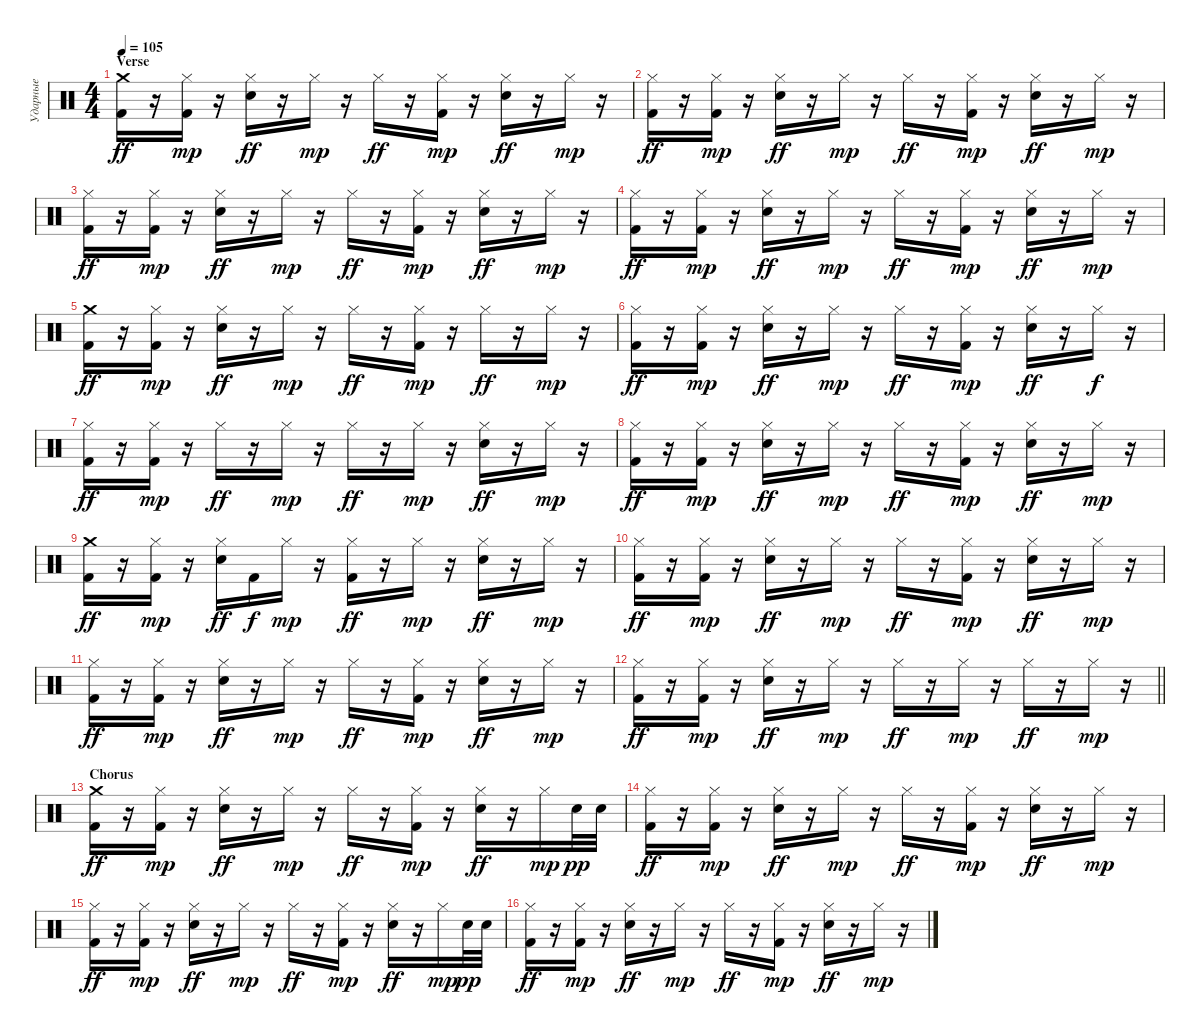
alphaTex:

\track ("Ударные" "Ударные") {instrument percussion}
\staff {score}
\articulation defaults
\ts (4 4)
\section ("" "Verse")
\tempo 105
\clef neutral
\ks c
("Crash medium (hit)" "Kick (hit) 2").16{dy ff} r.16 ("Hi-Hat (closed)" "Kick (hit) 2").16{dy mp} r.16 ("Hi-Hat (closed)" "Electric Snare (hit)").16{dy ff} r.16 "Hi-Hat (closed)".16{dy mp} r.16 "Hi-Hat (closed)".16{dy ff} r.16 ("Hi-Hat (closed)" "Kick (hit) 2").16{dy mp} r.16 ("Hi-Hat (closed)" "Electric Snare (hit)").16{dy ff} r.16 "Hi-Hat (closed)".16{dy mp} r.16 |
("Hi-Hat (closed)" "Kick (hit) 2").16{dy ff} r.16 ("Hi-Hat (closed)" "Kick (hit) 2").16{dy mp} r.16 ("Hi-Hat (closed)" "Electric Snare (hit)").16{dy ff} r.16 "Hi-Hat (closed)".16{dy mp} r.16 "Hi-Hat (closed)".16{dy ff} r.16 ("Hi-Hat (closed)" "Kick (hit) 2").16{dy mp} r.16 ("Hi-Hat (closed)" "Electric Snare (hit)").16{dy ff} r.16 "Hi-Hat (closed)".16{dy mp} r.16 |
("Hi-Hat (closed)" "Kick (hit) 2").16{dy ff} r.16 ("Hi-Hat (closed)" "Kick (hit) 2").16{dy mp} r.16 ("Hi-Hat (closed)" "Electric Snare (hit)").16{dy ff} r.16 "Hi-Hat (closed)".16{dy mp} r.16 "Hi-Hat (closed)".16{dy ff} r.16 ("Hi-Hat (closed)" "Kick (hit) 2").16{dy mp} r.16 ("Hi-Hat (closed)" "Electric Snare (hit)").16{dy ff} r.16 "Hi-Hat (closed)".16{dy mp} r.16 |
("Hi-Hat (closed)" "Kick (hit) 2").16{dy ff} r.16 ("Hi-Hat (closed)" "Kick (hit) 2").16{dy mp} r.16 ("Hi-Hat (closed)" "Electric Snare (hit)").16{dy ff} r.16 "Hi-Hat (closed)".16{dy mp} r.16 "Hi-Hat (closed)".16{dy ff} r.16 ("Hi-Hat (closed)" "Kick (hit) 2").16{dy mp} r.16 ("Hi-Hat (closed)" "Electric Snare (hit)").16{dy ff} r.16 "Hi-Hat (closed)".16{dy mp} r.16 |
("Crash medium (hit)" "Kick (hit) 2").16{dy ff} r.16 ("Hi-Hat (closed)" "Kick (hit) 2").16{dy mp} r.16 ("Hi-Hat (closed)" "Electric Snare (hit)").16{dy ff} r.16 "Hi-Hat (closed)".16{dy mp} r.16 "Hi-Hat (closed)".16{dy ff} r.16 ("Hi-Hat (closed)" "Kick (hit) 2").16{dy mp} r.16 "Hi-Hat (closed)".16{dy ff} r.16 "Hi-Hat (closed)".16{dy mp} r.16 |
("Hi-Hat (closed)" "Kick (hit) 2").16{dy ff} r.16 ("Hi-Hat (closed)" "Kick (hit) 2").16{dy mp} r.16 ("Hi-Hat (closed)" "Electric Snare (hit)").16{dy ff} r.16 "Hi-Hat (closed)".16{dy mp} r.16 "Hi-Hat (closed)".16{dy ff} r.16 ("Hi-Hat (closed)" "Kick (hit) 2").16{dy mp} r.16 ("Hi-Hat (closed)" "Electric Snare (hit)").16{dy ff} r.16 "Hi-Hat (closed)".16{dy f} r.16 |
("Hi-Hat (closed)" "Kick (hit) 2").16{dy ff} r.16 ("Hi-Hat (closed)" "Kick (hit) 2").16{dy mp} r.16 "Hi-Hat (closed)".16{dy ff} r.16 "Hi-Hat (closed)".16{dy mp} r.16 "Hi-Hat (closed)".16{dy ff} r.16 "Hi-Hat (closed)".16{dy mp} r.16 ("Hi-Hat (closed)" "Electric Snare (hit)").16{dy ff} r.16 "Hi-Hat (closed)".16{dy mp} r.16 |
("Hi-Hat (closed)" "Kick (hit) 2").16{dy ff} r.16 ("Hi-Hat (closed)" "Kick (hit) 2").16{dy mp} r.16 ("Hi-Hat (closed)" "Electric Snare (hit)").16{dy ff} r.16 "Hi-Hat (closed)".16{dy mp} r.16 "Hi-Hat (closed)".16{dy ff} r.16 ("Hi-Hat (closed)" "Kick (hit) 2").16{dy mp} r.16 ("Hi-Hat (closed)" "Electric Snare (hit)").16{dy ff} r.16 "Hi-Hat (closed)".16{dy mp} r.16 |
("Crash medium (hit)" "Kick (hit) 2").16{dy ff} r.16 ("Hi-Hat (closed)" "Kick (hit) 2").16{dy mp} r.16 ("Hi-Hat (closed)" "Electric Snare (hit)").16{dy ff} "Kick (hit) 2".16{dy f} "Hi-Hat (closed)".16{dy mp} r.16 ("Hi-Hat (closed)" "Kick (hit) 2").16{dy ff} r.16 "Hi-Hat (closed)".16{dy mp} r.16 ("Hi-Hat (closed)" "Electric Snare (hit)").16{dy ff} r.16 "Hi-Hat (closed)".16{dy mp} r.16 |
("Hi-Hat (closed)" "Kick (hit) 2").16{dy ff} r.16 ("Hi-Hat (closed)" "Kick (hit) 2").16{dy mp} r.16 ("Hi-Hat (closed)" "Electric Snare (hit)").16{dy ff} r.16 "Hi-Hat (closed)".16{dy mp} r.16 "Hi-Hat (closed)".16{dy ff} r.16 ("Hi-Hat (closed)" "Kick (hit) 2").16{dy mp} r.16 ("Hi-Hat (closed)" "Electric Snare (hit)").16{dy ff} r.16 "Hi-Hat (closed)".16{dy mp} r.16 |
("Hi-Hat (closed)" "Kick (hit) 2").16{dy ff} r.16 ("Hi-Hat (closed)" "Kick (hit) 2").16{dy mp} r.16 ("Hi-Hat (closed)" "Electric Snare (hit)").16{dy ff} r.16 "Hi-Hat (closed)".16{dy mp} r.16 "Hi-Hat (closed)".16{dy ff} r.16 ("Hi-Hat (closed)" "Kick (hit) 2").16{dy mp} r.16 ("Hi-Hat (closed)" "Electric Snare (hit)").16{dy ff} r.16 "Hi-Hat (closed)".16{dy mp} r.16 |
\barLineRight lightlight
("Hi-Hat (closed)" "Kick (hit) 2").16{dy ff} r.16 ("Hi-Hat (closed)" "Kick (hit) 2").16{dy mp} r.16 ("Hi-Hat (closed)" "Electric Snare (hit)").16{dy ff} r.16 "Hi-Hat (closed)".16{dy mp} r.16 "Hi-Hat (closed)".16{dy ff} r.16 "Hi-Hat (closed)".16{dy mp} r.16 "Hi-Hat (closed)".16{dy ff} r.16 "Hi-Hat (closed)".16{dy mp} r.16 |
\section ("" "Chorus")
("Crash medium (hit)" "Kick (hit) 2").16{dy ff} r.16 ("Hi-Hat (closed)" "Kick (hit) 2").16{dy mp} r.16 ("Hi-Hat (closed)" "Electric Snare (hit)").16{dy ff} r.16 "Hi-Hat (closed)".16{dy mp} r.16 "Hi-Hat (closed)".16{dy ff} r.16 ("Hi-Hat (closed)" "Kick (hit) 2").16{dy mp} r.16 ("Hi-Hat (closed)" "Electric Snare (hit)").16{dy ff} r.16 "Hi-Hat (closed)".16{dy mp} "Electric Snare (hit)".32{dy pp} "Electric Snare (hit)".32 |
("Hi-Hat (closed)" "Kick (hit) 2").16{dy ff} r.16 ("Hi-Hat (closed)" "Kick (hit) 2").16{dy mp} r.16 ("Hi-Hat (closed)" "Electric Snare (hit)").16{dy ff} r.16 "Hi-Hat (closed)".16{dy mp} r.16 "Hi-Hat (closed)".16{dy ff} r.16 ("Hi-Hat (closed)" "Kick (hit) 2").16{dy mp} r.16 ("Hi-Hat (closed)" "Electric Snare (hit)").16{dy ff} r.16 "Hi-Hat (closed)".16{dy mp} r.16 |
("Hi-Hat (closed)" "Kick (hit) 2").16{dy ff} r.16 ("Hi-Hat (closed)" "Kick (hit) 2").16{dy mp} r.16 ("Hi-Hat (closed)" "Electric Snare (hit)").16{dy ff} r.16 "Hi-Hat (closed)".16{dy mp} r.16 "Hi-Hat (closed)".16{dy ff} r.16 ("Hi-Hat (closed)" "Kick (hit) 2").16{dy mp} r.16 ("Hi-Hat (closed)" "Electric Snare (hit)").16{dy ff} r.16 "Hi-Hat (closed)".16{dy mp} "Electric Snare (hit)".32{dy pp} "Electric Snare (hit)".32 |
("Hi-Hat (closed)" "Kick (hit) 2").16{dy ff} r.16 ("Hi-Hat (closed)" "Kick (hit) 2").16{dy mp} r.16 ("Hi-Hat (closed)" "Electric Snare (hit)").16{dy ff} r.16 "Hi-Hat (closed)".16{dy mp} r.16 "Hi-Hat (closed)".16{dy ff} r.16 ("Hi-Hat (closed)" "Kick (hit) 2").16{dy mp} r.16 ("Hi-Hat (closed)" "Electric Snare (hit)").16{dy ff} r.16 "Hi-Hat (closed)".16{dy mp} r.16
